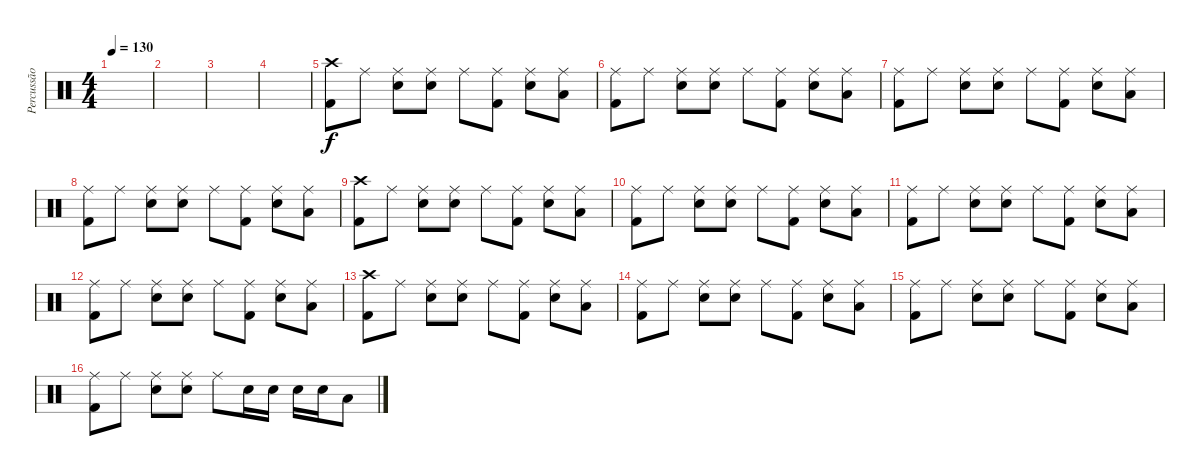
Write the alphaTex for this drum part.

\track ("Percussão" "Percussão") {instrument percussion}
\staff {score}
\articulation defaults
\ts (4 4)
\tempo 130
\clef neutral
\ks c
|
|
|
|
("Crash high (hit)" "Kick (hit) 2").8 "Ride (middle)".8 ("Ride (middle)" "Electric Snare (hit)").8 ("Ride (middle)" "Electric Snare (hit)").8 "Ride (middle)".8 ("Ride (middle)" "Kick (hit) 2").8 ("Ride (middle)" "Electric Snare (hit)").8 ("Ride (middle)" "Low Tom (hit)").8 |
("Ride (middle)" "Kick (hit) 2").8 "Ride (middle)".8 ("Ride (middle)" "Electric Snare (hit)").8 ("Ride (middle)" "Electric Snare (hit)").8 "Ride (middle)".8 ("Ride (middle)" "Kick (hit) 2").8 ("Ride (middle)" "Electric Snare (hit)").8 ("Ride (middle)" "Low Tom (hit)").8 |
("Ride (middle)" "Kick (hit) 2").8 "Ride (middle)".8 ("Ride (middle)" "Electric Snare (hit)").8 ("Ride (middle)" "Electric Snare (hit)").8 "Ride (middle)".8 ("Ride (middle)" "Kick (hit) 2").8 ("Ride (middle)" "Electric Snare (hit)").8 ("Ride (middle)" "Low Tom (hit)").8 |
("Ride (middle)" "Kick (hit) 2").8 "Ride (middle)".8 ("Ride (middle)" "Electric Snare (hit)").8 ("Ride (middle)" "Electric Snare (hit)").8 "Ride (middle)".8 ("Ride (middle)" "Kick (hit) 2").8 ("Ride (middle)" "Electric Snare (hit)").8 ("Ride (middle)" "Low Tom (hit)").8 |
("Crash high (hit)" "Kick (hit) 2").8 "Ride (middle)".8 ("Ride (middle)" "Electric Snare (hit)").8 ("Ride (middle)" "Electric Snare (hit)").8 "Ride (middle)".8 ("Ride (middle)" "Kick (hit) 2").8 ("Ride (middle)" "Electric Snare (hit)").8 ("Ride (middle)" "Low Tom (hit)").8 |
("Ride (middle)" "Kick (hit) 2").8 "Ride (middle)".8 ("Ride (middle)" "Electric Snare (hit)").8 ("Ride (middle)" "Electric Snare (hit)").8 "Ride (middle)".8 ("Ride (middle)" "Kick (hit) 2").8 ("Ride (middle)" "Electric Snare (hit)").8 ("Ride (middle)" "Low Tom (hit)").8 |
("Ride (middle)" "Kick (hit) 2").8 "Ride (middle)".8 ("Ride (middle)" "Electric Snare (hit)").8 ("Ride (middle)" "Electric Snare (hit)").8 "Ride (middle)".8 ("Ride (middle)" "Kick (hit) 2").8 ("Ride (middle)" "Electric Snare (hit)").8 ("Ride (middle)" "Low Tom (hit)").8 |
("Ride (middle)" "Kick (hit) 2").8 "Ride (middle)".8 ("Ride (middle)" "Electric Snare (hit)").8 ("Ride (middle)" "Electric Snare (hit)").8 "Ride (middle)".8 ("Ride (middle)" "Kick (hit) 2").8 ("Ride (middle)" "Electric Snare (hit)").8 ("Ride (middle)" "Low Tom (hit)").8 |
("Crash high (hit)" "Kick (hit) 2").8 "Ride (middle)".8 ("Ride (middle)" "Electric Snare (hit)").8 ("Ride (middle)" "Electric Snare (hit)").8 "Ride (middle)".8 ("Ride (middle)" "Kick (hit) 2").8 ("Ride (middle)" "Electric Snare (hit)").8 ("Ride (middle)" "Low Tom (hit)").8 |
("Ride (middle)" "Kick (hit) 2").8 "Ride (middle)".8 ("Ride (middle)" "Electric Snare (hit)").8 ("Ride (middle)" "Electric Snare (hit)").8 "Ride (middle)".8 ("Ride (middle)" "Kick (hit) 2").8 ("Ride (middle)" "Electric Snare (hit)").8 ("Ride (middle)" "Low Tom (hit)").8 |
("Ride (middle)" "Kick (hit) 2").8 "Ride (middle)".8 ("Ride (middle)" "Electric Snare (hit)").8 ("Ride (middle)" "Electric Snare (hit)").8 "Ride (middle)".8 ("Ride (middle)" "Kick (hit) 2").8 ("Ride (middle)" "Electric Snare (hit)").8 ("Ride (middle)" "Low Tom (hit)").8 |
("Ride (middle)" "Kick (hit) 2").8 "Ride (middle)".8 ("Ride (middle)" "Electric Snare (hit)").8 ("Ride (middle)" "Electric Snare (hit)").8 "Ride (middle)".8 "Electric Snare (hit)".16 "Electric Snare (hit)".16 "Electric Snare (hit)".16 "Electric Snare (hit)".16 "Low Tom (hit)".8
